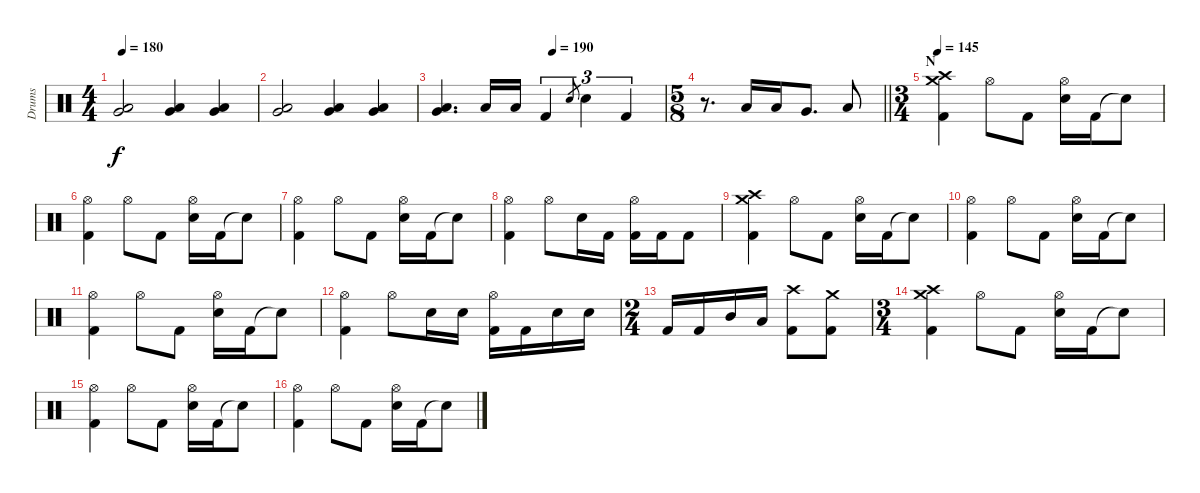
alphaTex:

\track ("Drums" "Drums") {instrument percussion}
\staff {score}
\articulation defaults
\ts (4 4)
\tempo 180
\clef neutral
\ks c
("Very Low Tom (hit)" "Low Floor Tom (hit)").2{dy f} ("Very Low Tom (hit)" "Low Floor Tom (hit)").4 ("Very Low Tom (hit)" "Low Floor Tom (hit)").4 |
("Very Low Tom (hit)" "Low Floor Tom (hit)").2 ("Very Low Tom (hit)" "Low Floor Tom (hit)").4 ("Very Low Tom (hit)" "Low Floor Tom (hit)").4 |
\tempo (190 0.5)
("Very Low Tom (hit)" "Low Floor Tom (hit)").4{d} "Low Tom (hit)".16 "Low Tom (hit)".16 "Kick (hit) 2".4{tu (3 2)} "Electric Snare (hit)".8{gr} "Electric Snare (hit)".4{tu (3 2)} "Kick (hit) 2".4{tu (3 2)} |
\ts (5 8)
\barLineRight lightlight
r.8{d} "Low Tom (hit)".16 "Low Tom (hit)".16 "Very Low Tom (hit)".8{d} "Low Floor Tom (hit)".8 |
\ts (3 4)
\section ("" "N")
\tempo 145
("Crash medium (hit)" "Crash high (hit)" "Kick (hit) 2").4 "Hi-Hat (open)".8 "Kick (hit) 2".8 ("Hi-Hat (open)" "Electric Snare (hit)").16 "Kick (hit) 2".16 "Snare (hit)"{t}.8 |
("Hi-Hat (open)" "Kick (hit) 2").4 "Hi-Hat (open)".8 "Kick (hit) 2".8 ("Hi-Hat (open)" "Electric Snare (hit)").16 "Kick (hit) 2".16 "Snare (hit)"{t}.8 |
("Hi-Hat (open)" "Kick (hit) 2").4 "Hi-Hat (open)".8 "Kick (hit) 2".8 ("Hi-Hat (open)" "Electric Snare (hit)").16 "Kick (hit) 2".16 "Snare (hit)"{t}.8 |
("Hi-Hat (open)" "Kick (hit) 2").4 "Hi-Hat (open)".8 "Electric Snare (hit)".16 "Kick (hit) 2".16 ("Hi-Hat (open)" "Kick (hit) 2").16 "Kick (hit) 2".16 "Kick (hit) 2".8 |
("Crash medium (hit)" "Crash high (hit)" "Kick (hit) 2").4 "Hi-Hat (open)".8 "Kick (hit) 2".8 ("Hi-Hat (open)" "Electric Snare (hit)").16 "Kick (hit) 2".16 "Snare (hit)"{t}.8 |
("Hi-Hat (open)" "Kick (hit) 2").4 "Hi-Hat (open)".8 "Kick (hit) 2".8 ("Hi-Hat (open)" "Electric Snare (hit)").16 "Kick (hit) 2".16 "Snare (hit)"{t}.8 |
("Hi-Hat (open)" "Kick (hit) 2").4 "Hi-Hat (open)".8 "Kick (hit) 2".8 ("Hi-Hat (open)" "Electric Snare (hit)").16 "Kick (hit) 2".16 "Snare (hit)"{t}.8 |
("Hi-Hat (open)" "Kick (hit) 2").4 "Hi-Hat (open)".8 "Electric Snare (hit)".16 "Electric Snare (hit)".16 ("Hi-Hat (open)" "Kick (hit) 2").16 "Kick (hit) 2".16 "Electric Snare (hit)".16 "Electric Snare (hit)".16 |
\ts (2 4)
"Kick (hit) 2".16 "Kick (hit) 2".16 "Mid Tom (hit)".16 "Low Tom (hit)".16 ("Crash high (hit)" "Kick (hit) 2").8 ("Crash medium (hit)" "Kick (hit) 2").8 |
\ts (3 4)
("Crash medium (hit)" "Crash high (hit)" "Kick (hit) 2").4 "Hi-Hat (open)".8 "Kick (hit) 2".8 ("Hi-Hat (open)" "Electric Snare (hit)").16 "Kick (hit) 2".16 "Snare (hit)"{t}.8 |
("Hi-Hat (open)" "Kick (hit) 2").4 "Hi-Hat (open)".8 "Kick (hit) 2".8 ("Hi-Hat (open)" "Electric Snare (hit)").16 "Kick (hit) 2".16 "Snare (hit)"{t}.8 |
("Hi-Hat (open)" "Kick (hit) 2").4 "Hi-Hat (open)".8 "Kick (hit) 2".8 ("Hi-Hat (open)" "Electric Snare (hit)").16 "Kick (hit) 2".16 "Snare (hit)"{t}.8
